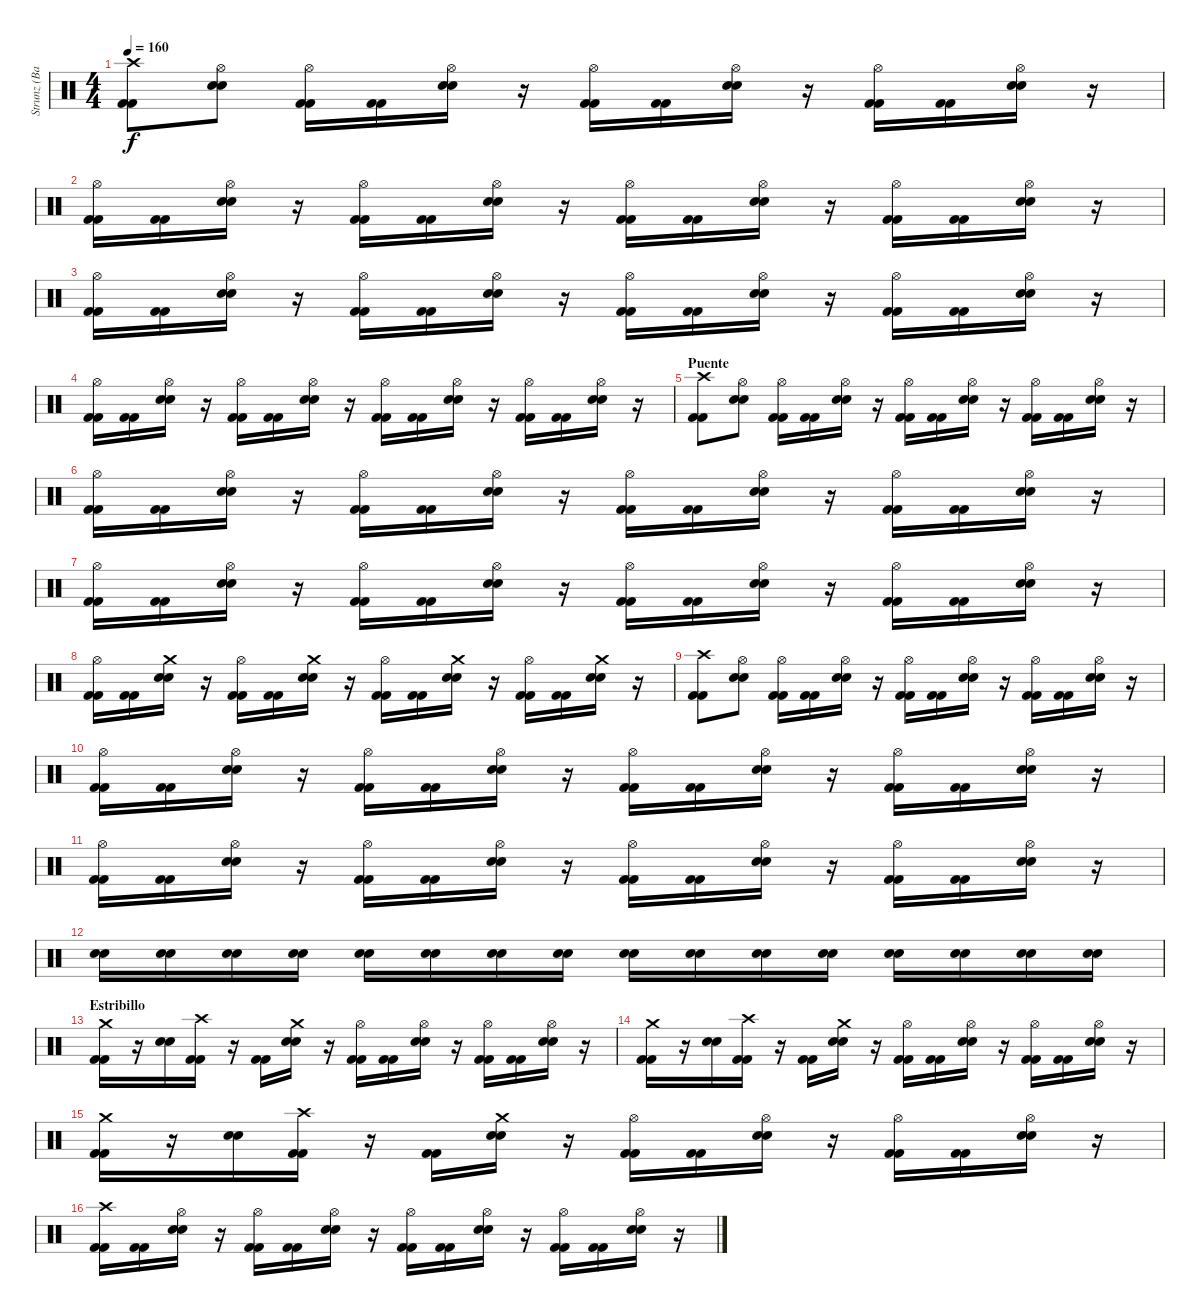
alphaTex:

\track ("Strunz (Bateria)" "Strunz (Ba") {instrument percussion}
\staff {score}
\articulation defaults
\ts (4 4)
\tempo 160
\clef neutral
\ks c
("Crash high (hit)" "Kick (hit) 2" "Kick (hit) 2").8{dy f} ("Hi-Hat (open)" "Snare (hit) 2" "Snare (hit) 2").8 ("Hi-Hat (open)" "Kick (hit) 2" "Kick (hit) 2").16 ("Kick (hit) 2" "Kick (hit) 2").16 ("Hi-Hat (open)" "Snare (hit) 2" "Snare (hit) 2").16 r.16 ("Hi-Hat (open)" "Kick (hit) 2" "Kick (hit) 2").16 ("Kick (hit) 2" "Kick (hit) 2").16 ("Hi-Hat (open)" "Snare (hit) 2" "Snare (hit) 2").16 r.16 ("Hi-Hat (open)" "Kick (hit) 2" "Kick (hit) 2").16 ("Kick (hit) 2" "Kick (hit) 2").16 ("Hi-Hat (open)" "Snare (hit) 2" "Snare (hit) 2").16 r.16 |
("Hi-Hat (open)" "Kick (hit) 2" "Kick (hit) 2").16 ("Kick (hit) 2" "Kick (hit) 2").16 ("Hi-Hat (open)" "Snare (hit) 2" "Snare (hit) 2").16 r.16 ("Hi-Hat (open)" "Kick (hit) 2" "Kick (hit) 2").16 ("Kick (hit) 2" "Kick (hit) 2").16 ("Hi-Hat (open)" "Snare (hit) 2" "Snare (hit) 2").16 r.16 ("Hi-Hat (open)" "Kick (hit) 2" "Kick (hit) 2").16 ("Kick (hit) 2" "Kick (hit) 2").16 ("Hi-Hat (open)" "Snare (hit) 2" "Snare (hit) 2").16 r.16 ("Hi-Hat (open)" "Kick (hit) 2" "Kick (hit) 2").16 ("Kick (hit) 2" "Kick (hit) 2").16 ("Hi-Hat (open)" "Snare (hit) 2" "Snare (hit) 2").16 r.16 |
("Hi-Hat (open)" "Kick (hit) 2" "Kick (hit) 2").16 ("Kick (hit) 2" "Kick (hit) 2").16 ("Hi-Hat (open)" "Snare (hit) 2" "Snare (hit) 2").16 r.16 ("Hi-Hat (open)" "Kick (hit) 2" "Kick (hit) 2").16 ("Kick (hit) 2" "Kick (hit) 2").16 ("Hi-Hat (open)" "Snare (hit) 2" "Snare (hit) 2").16 r.16 ("Hi-Hat (open)" "Kick (hit) 2" "Kick (hit) 2").16 ("Kick (hit) 2" "Kick (hit) 2").16 ("Hi-Hat (open)" "Snare (hit) 2" "Snare (hit) 2").16 r.16 ("Hi-Hat (open)" "Kick (hit) 2" "Kick (hit) 2").16 ("Kick (hit) 2" "Kick (hit) 2").16 ("Hi-Hat (open)" "Snare (hit) 2" "Snare (hit) 2").16 r.16 |
("Hi-Hat (open)" "Kick (hit) 2" "Kick (hit) 2").16 ("Kick (hit) 2" "Kick (hit) 2").16 ("Hi-Hat (open)" "Snare (hit) 2" "Snare (hit) 2").16 r.16 ("Hi-Hat (open)" "Kick (hit) 2" "Kick (hit) 2").16 ("Kick (hit) 2" "Kick (hit) 2").16 ("Hi-Hat (open)" "Snare (hit) 2" "Snare (hit) 2").16 r.16 ("Hi-Hat (open)" "Kick (hit) 2" "Kick (hit) 2").16 ("Kick (hit) 2" "Kick (hit) 2").16 ("Hi-Hat (open)" "Snare (hit) 2" "Snare (hit) 2").16 r.16 ("Hi-Hat (open)" "Kick (hit) 2" "Kick (hit) 2").16 ("Kick (hit) 2" "Kick (hit) 2").16 ("Hi-Hat (open)" "Snare (hit) 2" "Snare (hit) 2").16 r.16 |
\section ("" "Puente")
("Crash high (hit)" "Kick (hit) 2" "Kick (hit) 2").8 ("Hi-Hat (open)" "Snare (hit) 2" "Snare (hit) 2").8 ("Hi-Hat (open)" "Kick (hit) 2" "Kick (hit) 2").16 ("Kick (hit) 2" "Kick (hit) 2").16 ("Hi-Hat (open)" "Snare (hit) 2" "Snare (hit) 2").16 r.16 ("Hi-Hat (open)" "Kick (hit) 2" "Kick (hit) 2").16 ("Kick (hit) 2" "Kick (hit) 2").16 ("Hi-Hat (open)" "Snare (hit) 2" "Snare (hit) 2").16 r.16 ("Hi-Hat (open)" "Kick (hit) 2" "Kick (hit) 2").16 ("Kick (hit) 2" "Kick (hit) 2").16 ("Hi-Hat (open)" "Snare (hit) 2" "Snare (hit) 2").16 r.16 |
("Hi-Hat (open)" "Kick (hit) 2" "Kick (hit) 2").16 ("Kick (hit) 2" "Kick (hit) 2").16 ("Hi-Hat (open)" "Snare (hit) 2" "Snare (hit) 2").16 r.16 ("Hi-Hat (open)" "Kick (hit) 2" "Kick (hit) 2").16 ("Kick (hit) 2" "Kick (hit) 2").16 ("Hi-Hat (open)" "Snare (hit) 2" "Snare (hit) 2").16 r.16 ("Hi-Hat (open)" "Kick (hit) 2" "Kick (hit) 2").16 ("Kick (hit) 2" "Kick (hit) 2").16 ("Hi-Hat (open)" "Snare (hit) 2" "Snare (hit) 2").16 r.16 ("Hi-Hat (open)" "Kick (hit) 2" "Kick (hit) 2").16 ("Kick (hit) 2" "Kick (hit) 2").16 ("Hi-Hat (open)" "Snare (hit) 2" "Snare (hit) 2").16 r.16 |
("Hi-Hat (open)" "Kick (hit) 2" "Kick (hit) 2").16 ("Kick (hit) 2" "Kick (hit) 2").16 ("Hi-Hat (open)" "Snare (hit) 2" "Snare (hit) 2").16 r.16 ("Hi-Hat (open)" "Kick (hit) 2" "Kick (hit) 2").16 ("Kick (hit) 2" "Kick (hit) 2").16 ("Hi-Hat (open)" "Snare (hit) 2" "Snare (hit) 2").16 r.16 ("Hi-Hat (open)" "Kick (hit) 2" "Kick (hit) 2").16 ("Kick (hit) 2" "Kick (hit) 2").16 ("Hi-Hat (open)" "Snare (hit) 2" "Snare (hit) 2").16 r.16 ("Hi-Hat (open)" "Kick (hit) 2" "Kick (hit) 2").16 ("Kick (hit) 2" "Kick (hit) 2").16 ("Hi-Hat (open)" "Snare (hit) 2" "Snare (hit) 2").16 r.16 |
("Hi-Hat (open)" "Kick (hit) 2" "Kick (hit) 2").16 ("Kick (hit) 2" "Kick (hit) 2").16 ("Crash medium (hit)" "Snare (hit) 2" "Snare (hit) 2").16 r.16 ("Hi-Hat (open)" "Kick (hit) 2" "Kick (hit) 2").16 ("Kick (hit) 2" "Kick (hit) 2").16 ("Crash medium (hit)" "Snare (hit) 2" "Snare (hit) 2").16 r.16 ("Hi-Hat (open)" "Kick (hit) 2" "Kick (hit) 2").16 ("Kick (hit) 2" "Kick (hit) 2").16 ("Crash medium (hit)" "Snare (hit) 2" "Snare (hit) 2").16 r.16 ("Hi-Hat (open)" "Kick (hit) 2" "Kick (hit) 2").16 ("Kick (hit) 2" "Kick (hit) 2").16 ("Crash medium (hit)" "Snare (hit) 2" "Snare (hit) 2").16 r.16 |
("Crash high (hit)" "Kick (hit) 2" "Kick (hit) 2").8 ("Hi-Hat (open)" "Snare (hit) 2" "Snare (hit) 2").8 ("Hi-Hat (open)" "Kick (hit) 2" "Kick (hit) 2").16 ("Kick (hit) 2" "Kick (hit) 2").16 ("Hi-Hat (open)" "Snare (hit) 2" "Snare (hit) 2").16 r.16 ("Hi-Hat (open)" "Kick (hit) 2" "Kick (hit) 2").16 ("Kick (hit) 2" "Kick (hit) 2").16 ("Hi-Hat (open)" "Snare (hit) 2" "Snare (hit) 2").16 r.16 ("Hi-Hat (open)" "Kick (hit) 2" "Kick (hit) 2").16 ("Kick (hit) 2" "Kick (hit) 2").16 ("Hi-Hat (open)" "Snare (hit) 2" "Snare (hit) 2").16 r.16 |
("Hi-Hat (open)" "Kick (hit) 2" "Kick (hit) 2").16 ("Kick (hit) 2" "Kick (hit) 2").16 ("Hi-Hat (open)" "Snare (hit) 2" "Snare (hit) 2").16 r.16 ("Hi-Hat (open)" "Kick (hit) 2" "Kick (hit) 2").16 ("Kick (hit) 2" "Kick (hit) 2").16 ("Hi-Hat (open)" "Snare (hit) 2" "Snare (hit) 2").16 r.16 ("Hi-Hat (open)" "Kick (hit) 2" "Kick (hit) 2").16 ("Kick (hit) 2" "Kick (hit) 2").16 ("Hi-Hat (open)" "Snare (hit) 2" "Snare (hit) 2").16 r.16 ("Hi-Hat (open)" "Kick (hit) 2" "Kick (hit) 2").16 ("Kick (hit) 2" "Kick (hit) 2").16 ("Hi-Hat (open)" "Snare (hit) 2" "Snare (hit) 2").16 r.16 |
("Hi-Hat (open)" "Kick (hit) 2" "Kick (hit) 2").16 ("Kick (hit) 2" "Kick (hit) 2").16 ("Hi-Hat (open)" "Snare (hit) 2" "Snare (hit) 2").16 r.16 ("Hi-Hat (open)" "Kick (hit) 2" "Kick (hit) 2").16 ("Kick (hit) 2" "Kick (hit) 2").16 ("Hi-Hat (open)" "Snare (hit) 2" "Snare (hit) 2").16 r.16 ("Hi-Hat (open)" "Kick (hit) 2" "Kick (hit) 2").16 ("Kick (hit) 2" "Kick (hit) 2").16 ("Hi-Hat (open)" "Snare (hit) 2" "Snare (hit) 2").16 r.16 ("Hi-Hat (open)" "Kick (hit) 2" "Kick (hit) 2").16 ("Kick (hit) 2" "Kick (hit) 2").16 ("Hi-Hat (open)" "Snare (hit) 2" "Snare (hit) 2").16 r.16 |
("Snare (hit) 2" "Snare (hit) 2").16 ("Snare (hit) 2" "Snare (hit) 2").16 ("Snare (hit) 2" "Snare (hit) 2").16 ("Snare (hit) 2" "Snare (hit) 2").16 ("Snare (hit) 2" "Snare (hit) 2").16 ("Snare (hit) 2" "Snare (hit) 2").16 ("Snare (hit) 2" "Snare (hit) 2").16 ("Snare (hit) 2" "Snare (hit) 2").16 ("Snare (hit) 2" "Snare (hit) 2").16 ("Snare (hit) 2" "Snare (hit) 2").16 ("Snare (hit) 2" "Snare (hit) 2").16 ("Snare (hit) 2" "Snare (hit) 2").16 ("Snare (hit) 2" "Snare (hit) 2").16 ("Snare (hit) 2" "Snare (hit) 2").16 ("Snare (hit) 2" "Snare (hit) 2").16 ("Snare (hit) 2" "Snare (hit) 2").16 |
\section ("" "Estribillo")
("Crash medium (hit)" "Kick (hit) 2" "Kick (hit) 2").16 r.16 ("Snare (hit) 2" "Snare (hit) 2").16 ("Crash high (hit)" "Kick (hit) 2" "Kick (hit) 2").16 r.16 ("Kick (hit) 2" "Kick (hit) 2").16 ("Crash medium (hit)" "Snare (hit) 2" "Snare (hit) 2").16 r.16 ("Hi-Hat (open)" "Kick (hit) 2" "Kick (hit) 2").16 ("Kick (hit) 2" "Kick (hit) 2").16 ("Hi-Hat (open)" "Snare (hit) 2" "Snare (hit) 2").16 r.16 ("Hi-Hat (open)" "Kick (hit) 2" "Kick (hit) 2").16 ("Kick (hit) 2" "Kick (hit) 2").16 ("Hi-Hat (open)" "Snare (hit) 2" "Snare (hit) 2").16 r.16 |
("Crash medium (hit)" "Kick (hit) 2" "Kick (hit) 2").16 r.16 ("Snare (hit) 2" "Snare (hit) 2").16 ("Crash high (hit)" "Kick (hit) 2" "Kick (hit) 2").16 r.16 ("Kick (hit) 2" "Kick (hit) 2").16 ("Crash medium (hit)" "Snare (hit) 2" "Snare (hit) 2").16 r.16 ("Hi-Hat (open)" "Kick (hit) 2" "Kick (hit) 2").16 ("Kick (hit) 2" "Kick (hit) 2").16 ("Hi-Hat (open)" "Snare (hit) 2" "Snare (hit) 2").16 r.16 ("Hi-Hat (open)" "Kick (hit) 2" "Kick (hit) 2").16 ("Kick (hit) 2" "Kick (hit) 2").16 ("Hi-Hat (open)" "Snare (hit) 2" "Snare (hit) 2").16 r.16 |
("Crash medium (hit)" "Kick (hit) 2" "Kick (hit) 2").16 r.16 ("Snare (hit) 2" "Snare (hit) 2").16 ("Crash high (hit)" "Kick (hit) 2" "Kick (hit) 2").16 r.16 ("Kick (hit) 2" "Kick (hit) 2").16 ("Crash medium (hit)" "Snare (hit) 2" "Snare (hit) 2").16 r.16 ("Hi-Hat (open)" "Kick (hit) 2" "Kick (hit) 2").16 ("Kick (hit) 2" "Kick (hit) 2").16 ("Hi-Hat (open)" "Snare (hit) 2" "Snare (hit) 2").16 r.16 ("Hi-Hat (open)" "Kick (hit) 2" "Kick (hit) 2").16 ("Kick (hit) 2" "Kick (hit) 2").16 ("Hi-Hat (open)" "Snare (hit) 2" "Snare (hit) 2").16 r.16 |
("Crash high (hit)" "Kick (hit) 2" "Kick (hit) 2").16 ("Kick (hit) 2" "Kick (hit) 2").16 ("Hi-Hat (open)" "Snare (hit) 2" "Snare (hit) 2").16 r.16 ("Hi-Hat (open)" "Kick (hit) 2" "Kick (hit) 2").16 ("Kick (hit) 2" "Kick (hit) 2").16 ("Hi-Hat (open)" "Snare (hit) 2" "Snare (hit) 2").16 r.16 ("Hi-Hat (open)" "Kick (hit) 2" "Kick (hit) 2").16 ("Kick (hit) 2" "Kick (hit) 2").16 ("Hi-Hat (open)" "Snare (hit) 2" "Snare (hit) 2").16 r.16 ("Hi-Hat (open)" "Kick (hit) 2" "Kick (hit) 2").16 ("Kick (hit) 2" "Kick (hit) 2").16 ("Hi-Hat (open)" "Snare (hit) 2" "Snare (hit) 2").16 r.16
